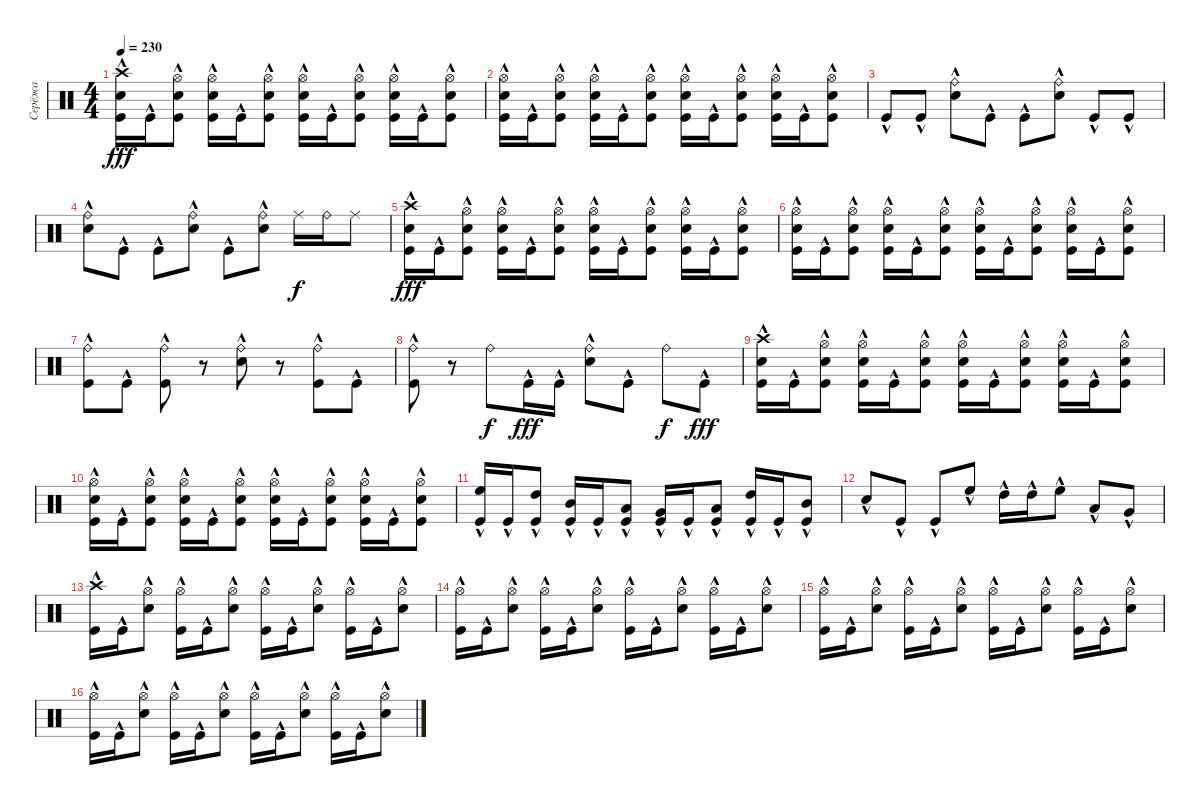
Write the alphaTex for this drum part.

\track ("Серёжа" "Серёжа") {instrument percussion}
\staff {score}
\articulation defaults
\ts (4 4)
\tempo 230
\clef neutral
\ks c
("Crash high (hit)"{hac} "Snare (hit) 2"{hac} "Kick (hit)"{hac}).16{dy fff} "Kick (hit)"{hac}.16 ("Hi-Hat (open)" "Snare (hit) 2"{hac} "Kick (hit)"{hac}).8 ("Hi-Hat (open)" "Snare (hit) 2"{hac} "Kick (hit)"{hac}).16 "Kick (hit)"{hac}.16 ("Hi-Hat (open)" "Snare (hit) 2"{hac} "Kick (hit)"{hac}).8 ("Hi-Hat (open)" "Snare (hit) 2"{hac} "Kick (hit)"{hac}).16 "Kick (hit)"{hac}.16 ("Hi-Hat (open)" "Snare (hit) 2"{hac} "Kick (hit)"{hac}).8 ("Hi-Hat (open)" "Snare (hit) 2"{hac} "Kick (hit)"{hac}).16 "Kick (hit)"{hac}.16 ("Hi-Hat (open)" "Snare (hit) 2"{hac} "Kick (hit)"{hac}).8 |
("Hi-Hat (open)" "Snare (hit) 2"{hac} "Kick (hit)"{hac}).16 "Kick (hit)"{hac}.16 ("Hi-Hat (open)" "Snare (hit) 2"{hac} "Kick (hit)"{hac}).8 ("Hi-Hat (open)" "Snare (hit) 2"{hac} "Kick (hit)"{hac}).16 "Kick (hit)"{hac}.16 ("Hi-Hat (open)" "Snare (hit) 2"{hac} "Kick (hit)"{hac}).8 ("Hi-Hat (open)" "Snare (hit) 2"{hac} "Kick (hit)"{hac}).16 "Kick (hit)"{hac}.16 ("Hi-Hat (open)" "Snare (hit) 2"{hac} "Kick (hit)"{hac}).8 ("Hi-Hat (open)" "Snare (hit) 2"{hac} "Kick (hit)"{hac}).16 "Kick (hit)"{hac}.16 ("Hi-Hat (open)" "Snare (hit) 2"{hac} "Kick (hit)"{hac}).8 |
"Kick (hit)"{hac}.8 "Kick (hit)"{hac}.8 ("Ride (bell)" "Snare (hit) 2"{hac}).8 "Kick (hit)"{hac}.8 "Kick (hit)"{hac}.8 ("Ride (bell)" "Snare (hit) 2"{hac}).8 "Kick (hit)"{hac}.8 "Kick (hit)"{hac}.8 |
("Ride (bell)" "Snare (hit) 2"{hac}).8 "Kick (hit)"{hac}.8 "Kick (hit)"{hac}.8 ("Ride (bell)" "Snare (hit) 2"{hac}).8 "Kick (hit)"{hac}.8 ("Ride (bell)" "Snare (hit) 2"{hac}).8 "Ride (middle)".16{dy f} "Ride (bell)".16 "Ride (middle)".8 |
("Crash high (hit)"{hac} "Snare (hit) 2"{hac} "Kick (hit)"{hac}).16{dy fff} "Kick (hit)"{hac}.16 ("Hi-Hat (open)" "Snare (hit) 2"{hac} "Kick (hit)"{hac}).8 ("Hi-Hat (open)" "Snare (hit) 2"{hac} "Kick (hit)"{hac}).16 "Kick (hit)"{hac}.16 ("Hi-Hat (open)" "Snare (hit) 2"{hac} "Kick (hit)"{hac}).8 ("Hi-Hat (open)" "Snare (hit) 2"{hac} "Kick (hit)"{hac}).16 "Kick (hit)"{hac}.16 ("Hi-Hat (open)" "Snare (hit) 2"{hac} "Kick (hit)"{hac}).8 ("Hi-Hat (open)" "Snare (hit) 2"{hac} "Kick (hit)"{hac}).16 "Kick (hit)"{hac}.16 ("Hi-Hat (open)" "Snare (hit) 2"{hac} "Kick (hit)"{hac}).8 |
("Hi-Hat (open)" "Snare (hit) 2"{hac} "Kick (hit)"{hac}).16 "Kick (hit)"{hac}.16 ("Hi-Hat (open)" "Snare (hit) 2"{hac} "Kick (hit)"{hac}).8 ("Hi-Hat (open)" "Snare (hit) 2"{hac} "Kick (hit)"{hac}).16 "Kick (hit)"{hac}.16 ("Hi-Hat (open)" "Snare (hit) 2"{hac} "Kick (hit)"{hac}).8 ("Hi-Hat (open)" "Snare (hit) 2"{hac} "Kick (hit)"{hac}).16 "Kick (hit)"{hac}.16 ("Hi-Hat (open)" "Snare (hit) 2"{hac} "Kick (hit)"{hac}).8 ("Hi-Hat (open)" "Snare (hit) 2"{hac} "Kick (hit)"{hac}).16 "Kick (hit)"{hac}.16 ("Hi-Hat (open)" "Snare (hit) 2"{hac} "Kick (hit)"{hac}).8 |
("Ride (bell)" "Kick (hit)"{hac}).8 "Kick (hit)"{hac}.8 ("Ride (bell)" "Kick (hit)"{hac}).8 r.8 ("Ride (bell)" "Snare (hit) 2"{hac}).8 r.8 ("Ride (bell)" "Kick (hit)"{hac}).8 "Kick (hit)"{hac}.8 |
("Ride (bell)" "Kick (hit)"{hac}).8 r.8 "Ride (bell)".8{dy f} "Kick (hit)"{hac}.16{dy fff} "Kick (hit)"{hac}.16 ("Ride (bell)" "Snare (hit) 2"{hac}).8 "Kick (hit)"{hac}.8 "Ride (bell)".8{dy f} "Kick (hit)"{hac}.8{dy fff} |
("Crash high (hit)"{hac} "Snare (hit) 2"{hac} "Kick (hit)"{hac}).16 "Kick (hit)"{hac}.16 ("Hi-Hat (open)" "Snare (hit) 2"{hac} "Kick (hit)"{hac}).8 ("Hi-Hat (open)" "Snare (hit) 2"{hac} "Kick (hit)"{hac}).16 "Kick (hit)"{hac}.16 ("Hi-Hat (open)" "Snare (hit) 2"{hac} "Kick (hit)"{hac}).8 ("Hi-Hat (open)" "Snare (hit) 2"{hac} "Kick (hit)"{hac}).16 "Kick (hit)"{hac}.16 ("Hi-Hat (open)" "Snare (hit) 2"{hac} "Kick (hit)"{hac}).8 ("Hi-Hat (open)" "Snare (hit) 2"{hac} "Kick (hit)"{hac}).16 "Kick (hit)"{hac}.16 ("Hi-Hat (open)" "Snare (hit) 2"{hac} "Kick (hit)"{hac}).8 |
("Hi-Hat (open)" "Snare (hit) 2"{hac} "Kick (hit)"{hac}).16 "Kick (hit)"{hac}.16 ("Hi-Hat (open)" "Snare (hit) 2"{hac} "Kick (hit)"{hac}).8 ("Hi-Hat (open)" "Snare (hit) 2"{hac} "Kick (hit)"{hac}).16 "Kick (hit)"{hac}.16 ("Hi-Hat (open)" "Snare (hit) 2"{hac} "Kick (hit)"{hac}).8 ("Hi-Hat (open)" "Snare (hit) 2"{hac} "Kick (hit)"{hac}).16 "Kick (hit)"{hac}.16 ("Hi-Hat (open)" "Snare (hit) 2"{hac} "Kick (hit)"{hac}).8 ("Hi-Hat (open)" "Snare (hit) 2"{hac} "Kick (hit)"{hac}).16 "Kick (hit)"{hac}.16 ("Hi-Hat (open)" "Snare (hit) 2"{hac} "Kick (hit)"{hac}).8 |
("High Floor Tom (hit)"{hac} "Kick (hit)"{hac}).16 "Kick (hit)"{hac}.16 ("High Tom (hit)"{hac} "Kick (hit)"{hac}).8 ("Mid Tom (hit)"{hac} "Kick (hit)"{hac}).16 "Kick (hit)"{hac}.16 ("Low Tom (hit)"{hac} "Kick (hit)"{hac}).8 ("Very Low Tom (hit)"{hac} "Kick (hit)"{hac}).16 "Kick (hit)"{hac}.16 ("Low Tom (hit)"{hac} "Kick (hit)"{hac}).8 ("High Tom (hit)"{hac} "Kick (hit)"{hac}).16 "Kick (hit)"{hac}.16 ("Mid Tom (hit)"{hac} "Kick (hit)"{hac}).8 |
"Snare (hit) 2"{hac}.8 "Kick (hit)"{hac}.8 "Kick (hit)"{hac}.8 "High Floor Tom (hit)"{hac}.8 "High Tom (hit)"{hac}.16 "High Tom (hit)"{hac}.16 "High Floor Tom (hit)"{hac}.8 "Low Tom (hit)"{hac}.8 "Very Low Tom (hit)"{hac}.8 |
("Crash high (hit)" "Kick (hit)"{hac}).16 "Kick (hit)"{hac}.16 ("Hi-Hat (open)" "Snare (hit) 2"{hac}).8 ("Hi-Hat (open)" "Kick (hit)"{hac}).16 "Kick (hit)"{hac}.16 ("Hi-Hat (open)" "Snare (hit) 2"{hac}).8 ("Hi-Hat (open)" "Kick (hit)"{hac}).16 "Kick (hit)"{hac}.16 ("Hi-Hat (open)" "Snare (hit) 2"{hac}).8 ("Hi-Hat (open)" "Kick (hit)"{hac}).16 "Kick (hit)"{hac}.16 ("Hi-Hat (open)" "Snare (hit) 2"{hac}).8 |
("Hi-Hat (open)" "Kick (hit)"{hac}).16 "Kick (hit)"{hac}.16 ("Hi-Hat (open)" "Snare (hit) 2"{hac}).8 ("Hi-Hat (open)" "Kick (hit)"{hac}).16 "Kick (hit)"{hac}.16 ("Hi-Hat (open)" "Snare (hit) 2"{hac}).8 ("Hi-Hat (open)" "Kick (hit)"{hac}).16 "Kick (hit)"{hac}.16 ("Hi-Hat (open)" "Snare (hit) 2"{hac}).8 ("Hi-Hat (open)" "Kick (hit)"{hac}).16 "Kick (hit)"{hac}.16 ("Hi-Hat (open)" "Snare (hit) 2"{hac}).8 |
("Hi-Hat (open)" "Kick (hit)"{hac}).16 "Kick (hit)"{hac}.16 ("Hi-Hat (open)" "Snare (hit) 2"{hac}).8 ("Hi-Hat (open)" "Kick (hit)"{hac}).16 "Kick (hit)"{hac}.16 ("Hi-Hat (open)" "Snare (hit) 2"{hac}).8 ("Hi-Hat (open)" "Kick (hit)"{hac}).16 "Kick (hit)"{hac}.16 ("Hi-Hat (open)" "Snare (hit) 2"{hac}).8 ("Hi-Hat (open)" "Kick (hit)"{hac}).16 "Kick (hit)"{hac}.16 ("Hi-Hat (open)" "Snare (hit) 2"{hac}).8 |
("Hi-Hat (open)" "Kick (hit)"{hac}).16 "Kick (hit)"{hac}.16 ("Hi-Hat (open)" "Snare (hit) 2"{hac}).8 ("Hi-Hat (open)" "Kick (hit)"{hac}).16 "Kick (hit)"{hac}.16 ("Hi-Hat (open)" "Snare (hit) 2"{hac}).8 ("Hi-Hat (open)" "Kick (hit)"{hac}).16 "Kick (hit)"{hac}.16 ("Hi-Hat (open)" "Snare (hit) 2"{hac}).8 ("Hi-Hat (open)" "Kick (hit)"{hac}).16 "Kick (hit)"{hac}.16 ("Hi-Hat (open)" "Snare (hit) 2"{hac}).8
